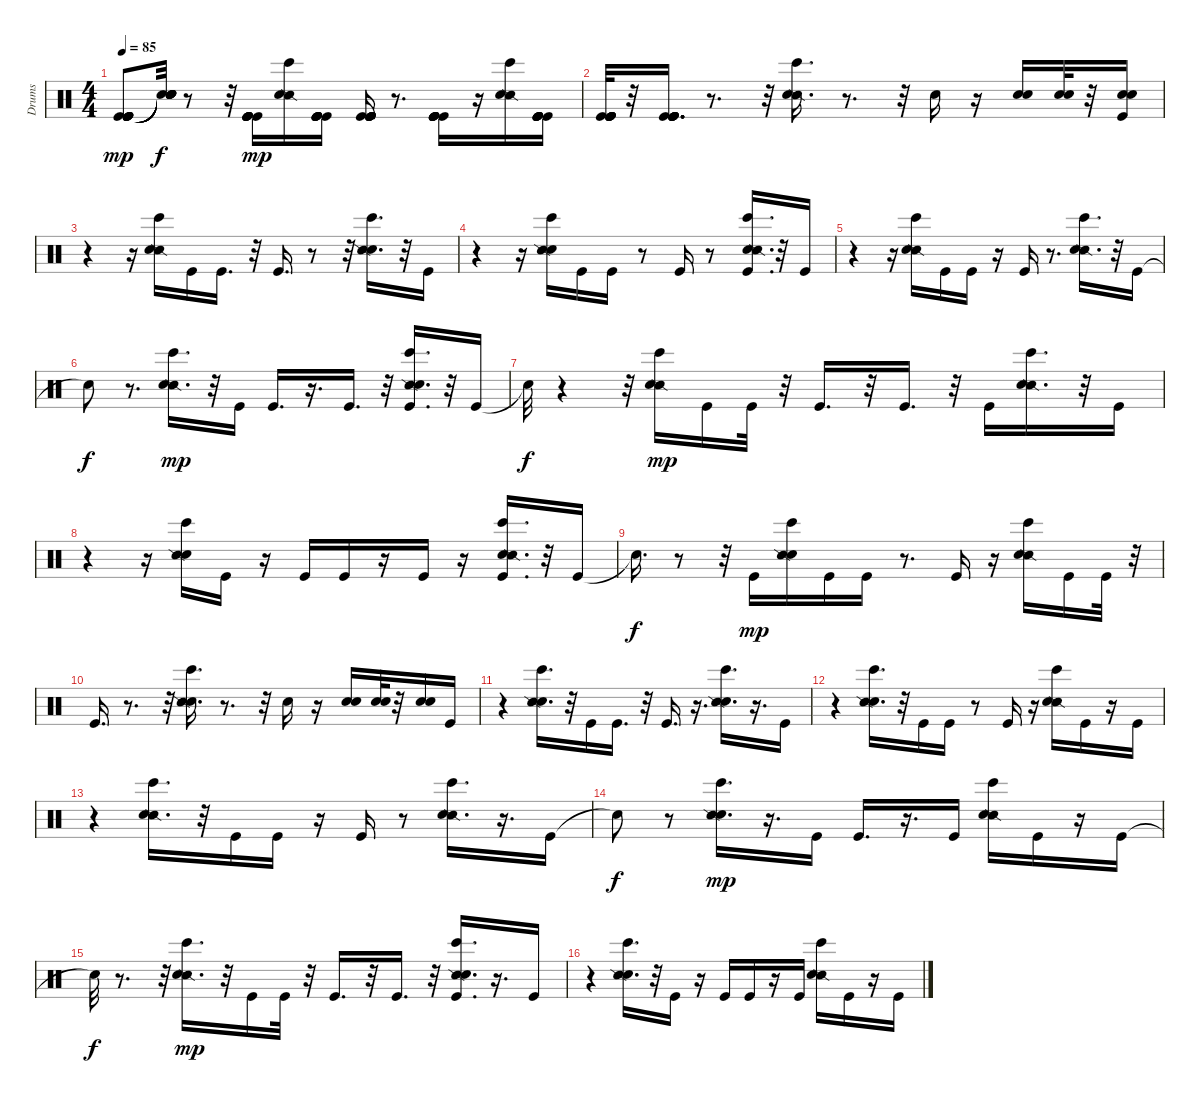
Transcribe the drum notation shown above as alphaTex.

\track ("Drums" "Drums") {instrument percussion}
\staff {score}
\articulation defaults
\ts (4 4)
\tempo 85
\clef neutral
\ks c
("Kick (hit)" "Kick (hit)" "Kick (hit)" "Kick (hit)" "Kick (hit)" "Kick (hit)").8{dy mp} ("Snare (hit)"{t} "Snare (hit)"{t} "Snare (hit)"{t} "Snare (hit)"{t} "Snare (hit)"{t} "Snare (hit)"{t}).32{dy f} r.8 r.32 ("Kick (hit)" "Kick (hit)" "Kick (hit)" "Kick (hit)" "Kick (hit)" "Kick (hit)").16{dy mp} ("Bongo High (hit)" "Snare (side stick) 2" "Electric Snare (hit)").16 ("Kick (hit)" "Kick (hit)" "Kick (hit)" "Kick (hit)" "Kick (hit)" "Kick (hit)").16 ("Kick (hit)" "Kick (hit)" "Kick (hit)" "Kick (hit)" "Kick (hit)" "Kick (hit)").16 r.8{d} ("Kick (hit)" "Kick (hit)" "Kick (hit)" "Kick (hit)" "Kick (hit)" "Kick (hit)").16 r.16 ("Bongo High (hit)" "Snare (side stick) 2" "Electric Snare (hit)").16 ("Kick (hit)" "Kick (hit)" "Kick (hit)" "Kick (hit)" "Kick (hit)" "Kick (hit)").16 |
("Kick (hit)" "Kick (hit)" "Kick (hit)" "Kick (hit)" "Kick (hit)" "Kick (hit)").32 r.32 ("Kick (hit)" "Kick (hit)" "Kick (hit)" "Kick (hit)" "Kick (hit)" "Kick (hit)").16{d} r.8{d} r.32 ("Snare (side stick) 2" "Electric Snare (hit)" "Bongo High (hit)").16{d} r.8{d} r.32 "Electric Snare (hit)".16 r.16 ("Electric Snare (hit)" "Electric Snare (hit)").16 ("Electric Snare (hit)" "Electric Snare (hit)").32 r.32 ("Electric Snare (hit)" "Kick (hit)" "Electric Snare (hit)").16 |
r.4 r.16 ("Snare (side stick) 2" "Bongo High (hit)" "Electric Snare (hit)").16 "Kick (hit)".16 "Kick (hit)".16{d} r.32 "Kick (hit)".16{d} r.8 r.32 ("Bongo High (hit)" "Electric Snare (hit)" "Snare (side stick) 2").16{d} r.32 "Kick (hit)".16 |
r.4 r.16 ("Electric Snare (hit)" "Bongo High (hit)" "Snare (side stick) 2").16 "Kick (hit)".16 "Kick (hit)".16 r.8 "Kick (hit)".16 r.8 ("Kick (hit)" "Electric Snare (hit)" "Snare (side stick) 2" "Bongo High (hit)").16{d} r.32 "Kick (hit)".16 |
r.4 r.16 ("Snare (side stick) 2" "Bongo High (hit)" "Electric Snare (hit)").16 "Kick (hit)".16 "Kick (hit)".16 r.16 "Kick (hit)".16 r.8{d} ("Snare (side stick) 2" "Electric Snare (hit)" "Bongo High (hit)").16{d} r.32 "Kick (hit)".16 |
"Snare (hit)"{t}.8{dy f} r.8{d} ("Snare (side stick) 2" "Bongo High (hit)" "Electric Snare (hit)").16{d dy mp} r.32 "Kick (hit)".16 "Kick (hit)".16{d} r.16{d} "Kick (hit)".16{d} r.32 ("Snare (side stick) 2" "Electric Snare (hit)" "Bongo High (hit)" "Kick (hit)").16{d} r.32 "Kick (hit)".16 |
"Snare (hit)"{t}.32{dy f} r.4 r.32 ("Snare (side stick) 2" "Bongo High (hit)" "Electric Snare (hit)").16{dy mp} "Kick (hit)".16 "Kick (hit)".32 r.32 "Kick (hit)".16{d} r.32 "Kick (hit)".16{d} r.32 "Kick (hit)".16 ("Snare (side stick) 2" "Electric Snare (hit)" "Bongo High (hit)").16{d} r.32 "Kick (hit)".16 |
r.4 r.16 ("Bongo High (hit)" "Electric Snare (hit)" "Snare (side stick) 2").16 "Kick (hit)".16 r.16 "Kick (hit)".16 "Kick (hit)".16 r.16 "Kick (hit)".16 r.16 ("Bongo High (hit)" "Electric Snare (hit)" "Kick (hit)" "Snare (side stick) 2").16{d} r.32 "Kick (hit)".16 |
"Snare (hit)"{t}.16{d dy f} r.8 r.32 "Kick (hit)".16{dy mp} ("Electric Snare (hit)" "Bongo High (hit)" "Snare (side stick) 2").16 "Kick (hit)".16 "Kick (hit)".16 r.8{d} "Kick (hit)".16 r.16 ("Snare (side stick) 2" "Electric Snare (hit)" "Bongo High (hit)").16 "Kick (hit)".16 "Kick (hit)".32 r.32 |
"Kick (hit)".16{d} r.8{d} r.32 ("Bongo High (hit)" "Electric Snare (hit)" "Snare (side stick) 2").16{d} r.8{d} r.32 "Electric Snare (hit)".16 r.16 ("Electric Snare (hit)" "Electric Snare (hit)").16 ("Electric Snare (hit)" "Electric Snare (hit)").32 r.32 ("Electric Snare (hit)" "Electric Snare (hit)").16 "Kick (hit)".16 |
r.4 ("Electric Snare (hit)" "Bongo High (hit)" "Snare (side stick) 2").16{d} r.32 "Kick (hit)".16 "Kick (hit)".16{d} r.32 "Kick (hit)".16{d} r.16{d} ("Bongo High (hit)" "Electric Snare (hit)" "Snare (side stick) 2").16{d} r.16{d} "Kick (hit)".16 |
r.4 ("Bongo High (hit)" "Electric Snare (hit)" "Snare (side stick) 2").16{d} r.32 "Kick (hit)".16 "Kick (hit)".16 r.8 "Kick (hit)".16 r.16 ("Bongo High (hit)" "Snare (side stick) 2" "Electric Snare (hit)").16 "Kick (hit)".16 r.16 "Kick (hit)".16 |
r.4 ("Snare (side stick) 2" "Electric Snare (hit)" "Bongo High (hit)").16{d} r.32 "Kick (hit)".16 "Kick (hit)".16 r.16 "Kick (hit)".16 r.8 ("Snare (side stick) 2" "Electric Snare (hit)" "Bongo High (hit)").16{d} r.16{d} "Kick (hit)".16 |
"Snare (hit)"{t}.8{dy f} r.8 ("Electric Snare (hit)" "Snare (side stick) 2" "Bongo High (hit)").16{d dy mp} r.16{d} "Kick (hit)".16 "Kick (hit)".16{d} r.16{d} "Kick (hit)".16 ("Snare (side stick) 2" "Electric Snare (hit)" "Bongo High (hit)").16 "Kick (hit)".16 r.16 "Kick (hit)".16 |
"Snare (hit)"{t}.32{dy f} r.8{d} r.32 ("Snare (side stick) 2" "Bongo High (hit)" "Electric Snare (hit)").16{d dy mp} r.32 "Kick (hit)".16 "Kick (hit)".32 r.32 "Kick (hit)".16{d} r.32 "Kick (hit)".16{d} r.32 ("Snare (side stick) 2" "Electric Snare (hit)" "Kick (hit)" "Bongo High (hit)").16{d} r.16{d} "Kick (hit)".16 |
r.4 ("Electric Snare (hit)" "Bongo High (hit)" "Snare (side stick) 2").16{d} r.32 "Kick (hit)".16 r.16 "Kick (hit)".16 "Kick (hit)".16 r.16 "Kick (hit)".16 ("Snare (side stick) 2" "Bongo High (hit)" "Electric Snare (hit)").16 "Kick (hit)".16 r.16 "Kick (hit)".16
